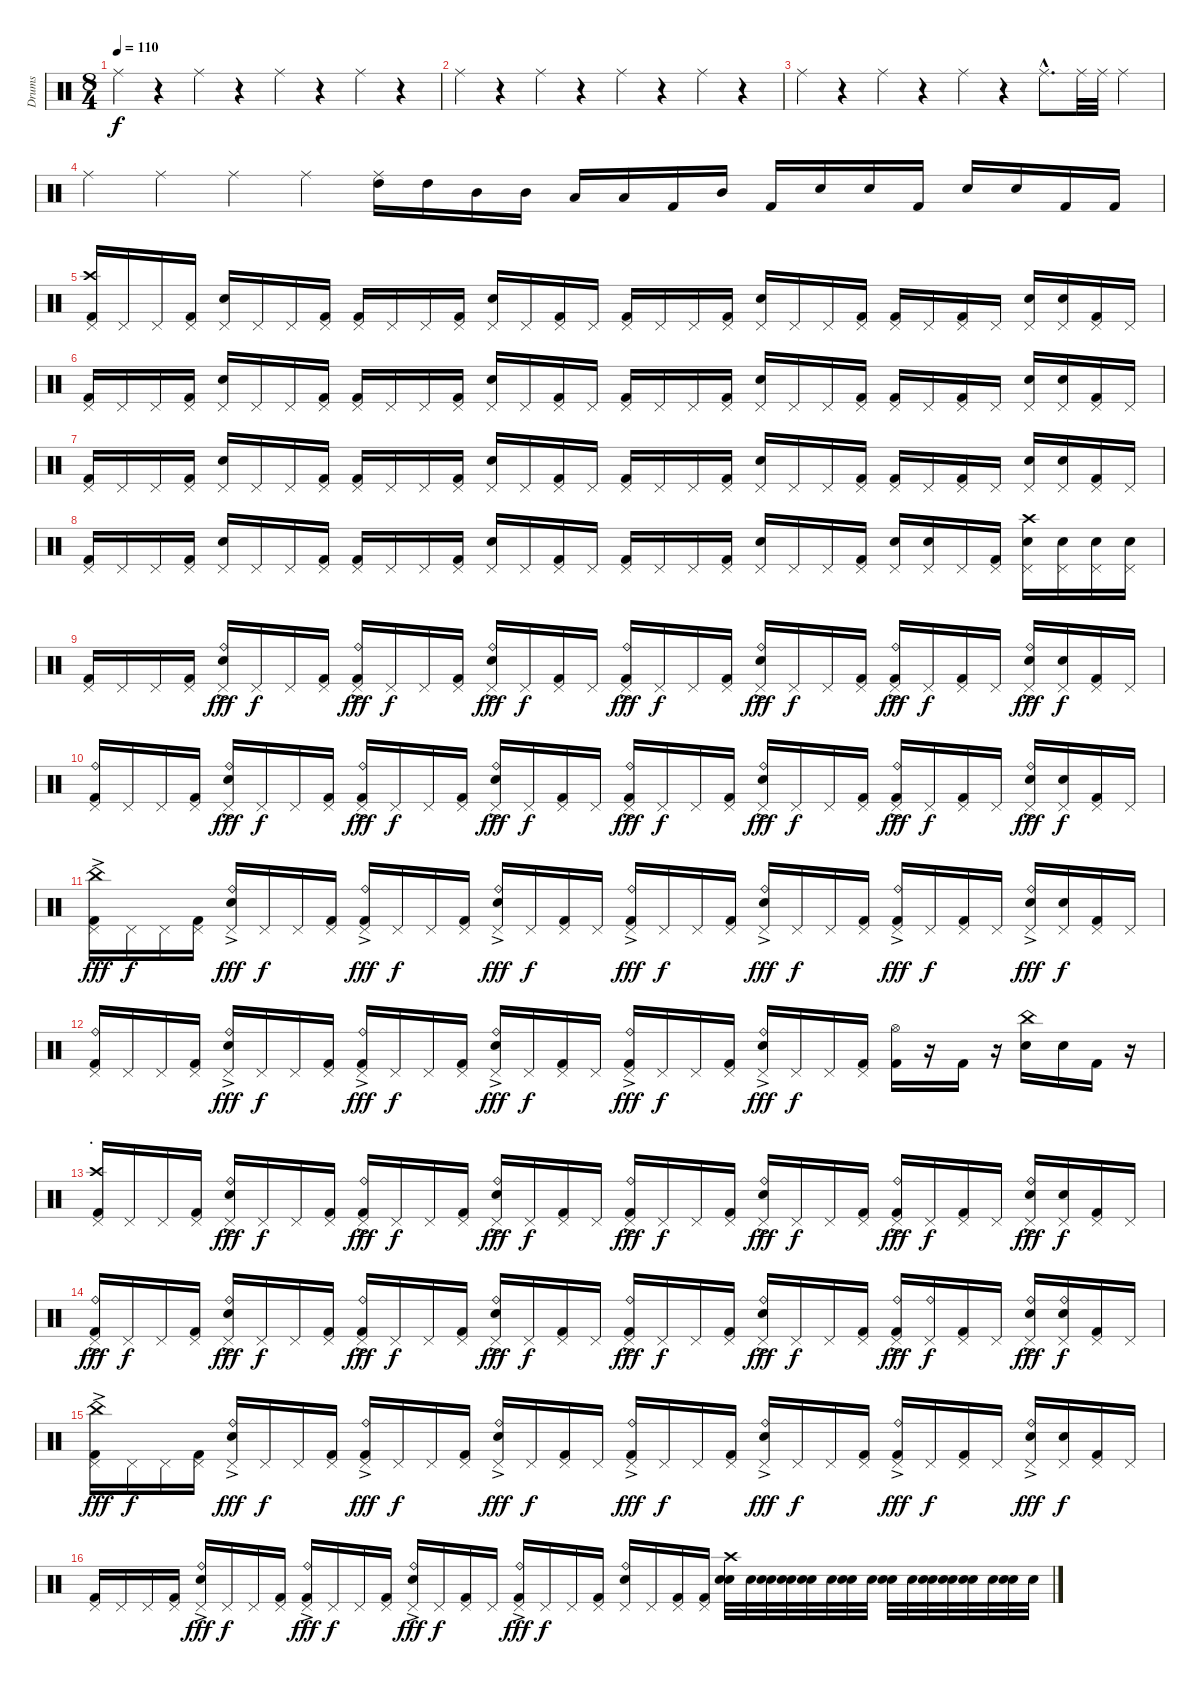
\track ("Drums" "Drums") {instrument percussion}
\staff {score}
\articulation defaults
\ts (8 4)
\tempo 110
\clef neutral
\ks c "Ride (middle)".4{dy f}
r.4 "Ride (middle)".4 r.4 "Ride (middle)".4 r.4 "Ride (middle)".4 r.4 |
"Ride (middle)".4 r.4 "Ride (middle)".4 r.4 "Ride (middle)".4 r.4 "Ride (middle)".4 r.4 |
"Ride (middle)".4 r.4 "Ride (middle)".4 r.4 "Ride (middle)".4 r.4 "Ride (middle)"{hac}.8{d} "Ride (middle)".32 "Ride (middle)".32 "Ride (middle)".4 |
"Ride (middle)".4 "Ride (middle)".4 "Ride (middle)".4 "Ride (middle)".4 ("High Tom (hit)" "Ride (middle)").16 "High Tom (hit)".16 "Mid Tom (hit)".16 "Mid Tom (hit)".16 "Low Tom (hit)".16 "Low Tom (hit)".16 "Kick (hit) 2".16 "Mid Tom (hit)".16 "Kick (hit) 2".16 "Snare (hit) 2".16 "Snare (hit) 2".16 "Kick (hit) 2".16 "Snare (hit) 2".16 "Snare (hit) 2".16 "Kick (hit) 2".16 "Kick (hit) 2".16 |
("Kick (hit) 2" "Crash high (hit)" "Pedal Hi-Hat (hit)").16 "Pedal Hi-Hat (hit)".16 "Pedal Hi-Hat (hit)".16 ("Kick (hit) 2" "Pedal Hi-Hat (hit)").16 ("Electric Snare (hit)" "Pedal Hi-Hat (hit)").16 "Pedal Hi-Hat (hit)".16 "Pedal Hi-Hat (hit)".16 ("Kick (hit) 2" "Pedal Hi-Hat (hit)").16 ("Kick (hit) 2" "Pedal Hi-Hat (hit)").16 "Pedal Hi-Hat (hit)".16 "Pedal Hi-Hat (hit)".16 ("Kick (hit) 2" "Pedal Hi-Hat (hit)").16 ("Electric Snare (hit)" "Pedal Hi-Hat (hit)").16 "Pedal Hi-Hat (hit)".16 ("Kick (hit) 2" "Pedal Hi-Hat (hit)").16 "Pedal Hi-Hat (hit)".16 ("Kick (hit) 2" "Pedal Hi-Hat (hit)").16 "Pedal Hi-Hat (hit)".16 "Pedal Hi-Hat (hit)".16 ("Kick (hit) 2" "Pedal Hi-Hat (hit)").16 ("Electric Snare (hit)" "Pedal Hi-Hat (hit)").16 "Pedal Hi-Hat (hit)".16 "Pedal Hi-Hat (hit)".16 ("Kick (hit) 2" "Pedal Hi-Hat (hit)").16 ("Kick (hit) 2" "Pedal Hi-Hat (hit)").16 "Pedal Hi-Hat (hit)".16 ("Kick (hit) 2" "Pedal Hi-Hat (hit)").16 "Pedal Hi-Hat (hit)".16 ("Electric Snare (hit)" "Pedal Hi-Hat (hit)").16 ("Electric Snare (hit)" "Pedal Hi-Hat (hit)").16 ("Kick (hit) 2" "Pedal Hi-Hat (hit)").16 "Pedal Hi-Hat (hit)".16 |
("Kick (hit) 2" "Pedal Hi-Hat (hit)").16 "Pedal Hi-Hat (hit)".16 "Pedal Hi-Hat (hit)".16 ("Kick (hit) 2" "Pedal Hi-Hat (hit)").16 ("Electric Snare (hit)" "Pedal Hi-Hat (hit)").16 "Pedal Hi-Hat (hit)".16 "Pedal Hi-Hat (hit)".16 ("Kick (hit) 2" "Pedal Hi-Hat (hit)").16 ("Kick (hit) 2" "Pedal Hi-Hat (hit)").16 "Pedal Hi-Hat (hit)".16 "Pedal Hi-Hat (hit)".16 ("Kick (hit) 2" "Pedal Hi-Hat (hit)").16 ("Electric Snare (hit)" "Pedal Hi-Hat (hit)").16 "Pedal Hi-Hat (hit)".16 ("Kick (hit) 2" "Pedal Hi-Hat (hit)").16 "Pedal Hi-Hat (hit)".16 ("Kick (hit) 2" "Pedal Hi-Hat (hit)").16 "Pedal Hi-Hat (hit)".16 "Pedal Hi-Hat (hit)".16 ("Kick (hit) 2" "Pedal Hi-Hat (hit)").16 ("Electric Snare (hit)" "Pedal Hi-Hat (hit)").16 "Pedal Hi-Hat (hit)".16 "Pedal Hi-Hat (hit)".16 ("Kick (hit) 2" "Pedal Hi-Hat (hit)").16 ("Kick (hit) 2" "Pedal Hi-Hat (hit)").16 "Pedal Hi-Hat (hit)".16 ("Kick (hit) 2" "Pedal Hi-Hat (hit)").16 "Pedal Hi-Hat (hit)".16 ("Electric Snare (hit)" "Pedal Hi-Hat (hit)").16 ("Electric Snare (hit)" "Pedal Hi-Hat (hit)").16 ("Kick (hit) 2" "Pedal Hi-Hat (hit)").16 "Pedal Hi-Hat (hit)".16 |
("Kick (hit) 2" "Pedal Hi-Hat (hit)").16 "Pedal Hi-Hat (hit)".16 "Pedal Hi-Hat (hit)".16 ("Kick (hit) 2" "Pedal Hi-Hat (hit)").16 ("Electric Snare (hit)" "Pedal Hi-Hat (hit)").16 "Pedal Hi-Hat (hit)".16 "Pedal Hi-Hat (hit)".16 ("Kick (hit) 2" "Pedal Hi-Hat (hit)").16 ("Kick (hit) 2" "Pedal Hi-Hat (hit)").16 "Pedal Hi-Hat (hit)".16 "Pedal Hi-Hat (hit)".16 ("Kick (hit) 2" "Pedal Hi-Hat (hit)").16 ("Electric Snare (hit)" "Pedal Hi-Hat (hit)").16 "Pedal Hi-Hat (hit)".16 ("Kick (hit) 2" "Pedal Hi-Hat (hit)").16 "Pedal Hi-Hat (hit)".16 ("Kick (hit) 2" "Pedal Hi-Hat (hit)").16 "Pedal Hi-Hat (hit)".16 "Pedal Hi-Hat (hit)".16 ("Kick (hit) 2" "Pedal Hi-Hat (hit)").16 ("Electric Snare (hit)" "Pedal Hi-Hat (hit)").16 "Pedal Hi-Hat (hit)".16 "Pedal Hi-Hat (hit)".16 ("Kick (hit) 2" "Pedal Hi-Hat (hit)").16 ("Kick (hit) 2" "Pedal Hi-Hat (hit)").16 "Pedal Hi-Hat (hit)".16 ("Kick (hit) 2" "Pedal Hi-Hat (hit)").16 "Pedal Hi-Hat (hit)".16 ("Electric Snare (hit)" "Pedal Hi-Hat (hit)").16 ("Electric Snare (hit)" "Pedal Hi-Hat (hit)").16 ("Kick (hit) 2" "Pedal Hi-Hat (hit)").16 "Pedal Hi-Hat (hit)".16 |
("Kick (hit) 2" "Pedal Hi-Hat (hit)").16 "Pedal Hi-Hat (hit)".16 "Pedal Hi-Hat (hit)".16 ("Kick (hit) 2" "Pedal Hi-Hat (hit)").16 ("Electric Snare (hit)" "Pedal Hi-Hat (hit)").16 "Pedal Hi-Hat (hit)".16 "Pedal Hi-Hat (hit)".16 ("Kick (hit) 2" "Pedal Hi-Hat (hit)").16 ("Kick (hit) 2" "Pedal Hi-Hat (hit)").16 "Pedal Hi-Hat (hit)".16 "Pedal Hi-Hat (hit)".16 ("Kick (hit) 2" "Pedal Hi-Hat (hit)").16 ("Electric Snare (hit)" "Pedal Hi-Hat (hit)").16 "Pedal Hi-Hat (hit)".16 ("Kick (hit) 2" "Pedal Hi-Hat (hit)").16 "Pedal Hi-Hat (hit)".16 ("Kick (hit) 2" "Pedal Hi-Hat (hit)").16 "Pedal Hi-Hat (hit)".16 "Pedal Hi-Hat (hit)".16 ("Kick (hit) 2" "Pedal Hi-Hat (hit)").16 ("Electric Snare (hit)" "Pedal Hi-Hat (hit)").16 "Pedal Hi-Hat (hit)".16 "Pedal Hi-Hat (hit)".16 ("Kick (hit) 2" "Pedal Hi-Hat (hit)").16 ("Electric Snare (hit)" "Pedal Hi-Hat (hit)").16 ("Electric Snare (hit)" "Pedal Hi-Hat (hit)").16 "Pedal Hi-Hat (hit)".16 ("Kick (hit) 2" "Pedal Hi-Hat (hit)").16 ("Electric Snare (hit)" "Crash high (hit)" "Pedal Hi-Hat (hit)").16 ("Electric Snare (hit)" "Pedal Hi-Hat (hit)").16 ("Electric Snare (hit)" "Pedal Hi-Hat (hit)").16 ("Electric Snare (hit)" "Pedal Hi-Hat (hit)").16 |
("Kick (hit) 2" "Pedal Hi-Hat (hit)").16 "Pedal Hi-Hat (hit)".16 "Pedal Hi-Hat (hit)".16 ("Kick (hit) 2" "Pedal Hi-Hat (hit)").16 ("Electric Snare (hit)" "Ride (bell)"{ac} "Pedal Hi-Hat (hit)").16{dy fff} "Pedal Hi-Hat (hit)".16{dy f} "Pedal Hi-Hat (hit)".16 ("Kick (hit) 2" "Pedal Hi-Hat (hit)").16 ("Kick (hit) 2" "Ride (bell)"{ac} "Pedal Hi-Hat (hit)").16{dy fff} "Pedal Hi-Hat (hit)".16{dy f} "Pedal Hi-Hat (hit)".16 ("Kick (hit) 2" "Pedal Hi-Hat (hit)").16 ("Electric Snare (hit)" "Ride (bell)"{ac} "Pedal Hi-Hat (hit)").16{dy fff} "Pedal Hi-Hat (hit)".16{dy f} ("Kick (hit) 2" "Pedal Hi-Hat (hit)").16 "Pedal Hi-Hat (hit)".16 ("Kick (hit) 2" "Ride (bell)"{ac} "Pedal Hi-Hat (hit)").16{dy fff} "Pedal Hi-Hat (hit)".16{dy f} "Pedal Hi-Hat (hit)".16 ("Kick (hit) 2" "Pedal Hi-Hat (hit)").16 ("Electric Snare (hit)" "Ride (bell)"{ac} "Pedal Hi-Hat (hit)").16{dy fff} "Pedal Hi-Hat (hit)".16{dy f} "Pedal Hi-Hat (hit)".16 ("Kick (hit) 2" "Pedal Hi-Hat (hit)").16 ("Kick (hit) 2" "Ride (bell)"{ac} "Pedal Hi-Hat (hit)").16{dy fff} "Pedal Hi-Hat (hit)".16{dy f} ("Kick (hit) 2" "Pedal Hi-Hat (hit)").16 "Pedal Hi-Hat (hit)".16 ("Electric Snare (hit)" "Ride (bell)"{ac} "Pedal Hi-Hat (hit)").16{dy fff} ("Electric Snare (hit)" "Pedal Hi-Hat (hit)").16{dy f} ("Kick (hit) 2" "Pedal Hi-Hat (hit)").16 "Pedal Hi-Hat (hit)".16 |
("Kick (hit) 2" "Ride (bell)" "Pedal Hi-Hat (hit)").16 "Pedal Hi-Hat (hit)".16 "Pedal Hi-Hat (hit)".16 ("Kick (hit) 2" "Pedal Hi-Hat (hit)").16 ("Electric Snare (hit)" "Ride (bell)"{ac} "Pedal Hi-Hat (hit)").16{dy fff} "Pedal Hi-Hat (hit)".16{dy f} "Pedal Hi-Hat (hit)".16 ("Kick (hit) 2" "Pedal Hi-Hat (hit)").16 ("Kick (hit) 2" "Ride (bell)"{ac} "Pedal Hi-Hat (hit)").16{dy fff} "Pedal Hi-Hat (hit)".16{dy f} "Pedal Hi-Hat (hit)".16 ("Kick (hit) 2" "Pedal Hi-Hat (hit)").16 ("Electric Snare (hit)" "Ride (bell)"{ac} "Pedal Hi-Hat (hit)").16{dy fff} "Pedal Hi-Hat (hit)".16{dy f} ("Kick (hit) 2" "Pedal Hi-Hat (hit)").16 "Pedal Hi-Hat (hit)".16 ("Kick (hit) 2" "Ride (bell)"{ac} "Pedal Hi-Hat (hit)").16{dy fff} "Pedal Hi-Hat (hit)".16{dy f} "Pedal Hi-Hat (hit)".16 ("Kick (hit) 2" "Pedal Hi-Hat (hit)").16 ("Electric Snare (hit)" "Ride (bell)"{ac} "Pedal Hi-Hat (hit)").16{dy fff} "Pedal Hi-Hat (hit)".16{dy f} "Pedal Hi-Hat (hit)".16 ("Kick (hit) 2" "Pedal Hi-Hat (hit)").16 ("Kick (hit) 2" "Ride (bell)"{ac} "Pedal Hi-Hat (hit)").16{dy fff} "Pedal Hi-Hat (hit)".16{dy f} ("Kick (hit) 2" "Pedal Hi-Hat (hit)").16 "Pedal Hi-Hat (hit)".16 ("Electric Snare (hit)" "Ride (bell)"{ac} "Pedal Hi-Hat (hit)").16{dy fff} ("Electric Snare (hit)" "Pedal Hi-Hat (hit)").16{dy f} ("Kick (hit) 2" "Pedal Hi-Hat (hit)").16 "Pedal Hi-Hat (hit)".16 |
("Kick (hit) 2" "China (hit)"{ac} "Pedal Hi-Hat (hit)").16{dy fff} "Pedal Hi-Hat (hit)".16{dy f} "Pedal Hi-Hat (hit)".16 ("Kick (hit) 2" "Pedal Hi-Hat (hit)").16 ("Electric Snare (hit)" "Ride (bell)"{ac} "Pedal Hi-Hat (hit)").16{dy fff} "Pedal Hi-Hat (hit)".16{dy f} "Pedal Hi-Hat (hit)".16 ("Kick (hit) 2" "Pedal Hi-Hat (hit)").16 ("Kick (hit) 2" "Ride (bell)"{ac} "Pedal Hi-Hat (hit)").16{dy fff} "Pedal Hi-Hat (hit)".16{dy f} "Pedal Hi-Hat (hit)".16 ("Kick (hit) 2" "Pedal Hi-Hat (hit)").16 ("Electric Snare (hit)" "Ride (bell)"{ac} "Pedal Hi-Hat (hit)").16{dy fff} "Pedal Hi-Hat (hit)".16{dy f} ("Kick (hit) 2" "Pedal Hi-Hat (hit)").16 "Pedal Hi-Hat (hit)".16 ("Kick (hit) 2" "Ride (bell)"{ac} "Pedal Hi-Hat (hit)").16{dy fff} "Pedal Hi-Hat (hit)".16{dy f} "Pedal Hi-Hat (hit)".16 ("Kick (hit) 2" "Pedal Hi-Hat (hit)").16 ("Electric Snare (hit)" "Ride (bell)"{ac} "Pedal Hi-Hat (hit)").16{dy fff} "Pedal Hi-Hat (hit)".16{dy f} "Pedal Hi-Hat (hit)".16 ("Kick (hit) 2" "Pedal Hi-Hat (hit)").16 ("Kick (hit) 2" "Ride (bell)"{ac} "Pedal Hi-Hat (hit)").16{dy fff} "Pedal Hi-Hat (hit)".16{dy f} ("Kick (hit) 2" "Pedal Hi-Hat (hit)").16 "Pedal Hi-Hat (hit)".16 ("Electric Snare (hit)" "Ride (bell)"{ac} "Pedal Hi-Hat (hit)").16{dy fff} ("Electric Snare (hit)" "Pedal Hi-Hat (hit)").16{dy f} ("Kick (hit) 2" "Pedal Hi-Hat (hit)").16 "Pedal Hi-Hat (hit)".16 |
("Kick (hit) 2" "Ride (bell)" "Pedal Hi-Hat (hit)").16 "Pedal Hi-Hat (hit)".16 "Pedal Hi-Hat (hit)".16 ("Kick (hit) 2" "Pedal Hi-Hat (hit)").16 ("Electric Snare (hit)" "Ride (bell)"{ac} "Pedal Hi-Hat (hit)").16{dy fff} "Pedal Hi-Hat (hit)".16{dy f} "Pedal Hi-Hat (hit)".16 ("Kick (hit) 2" "Pedal Hi-Hat (hit)").16 ("Kick (hit) 2" "Ride (bell)"{ac} "Pedal Hi-Hat (hit)").16{dy fff} "Pedal Hi-Hat (hit)".16{dy f} "Pedal Hi-Hat (hit)".16 ("Kick (hit) 2" "Pedal Hi-Hat (hit)").16 ("Electric Snare (hit)" "Ride (bell)"{ac} "Pedal Hi-Hat (hit)").16{dy fff} "Pedal Hi-Hat (hit)".16{dy f} ("Kick (hit) 2" "Pedal Hi-Hat (hit)").16 "Pedal Hi-Hat (hit)".16 ("Kick (hit) 2" "Ride (bell)"{ac} "Pedal Hi-Hat (hit)").16{dy fff} "Pedal Hi-Hat (hit)".16{dy f} "Pedal Hi-Hat (hit)".16 ("Kick (hit) 2" "Pedal Hi-Hat (hit)").16 ("Electric Snare (hit)" "Ride (bell)"{ac} "Pedal Hi-Hat (hit)").16{dy fff} "Pedal Hi-Hat (hit)".16{dy f} "Pedal Hi-Hat (hit)".16 ("Kick (hit) 2" "Pedal Hi-Hat (hit)").16 ("Kick (hit) 2" "Hi-Hat (open)").16 r.16 "Kick (hit) 2".16 r.16 ("Electric Snare (hit)" "China (hit)").16 "Electric Snare (hit)".16 "Kick (hit) 2".16 r.16 |
\section ("" ".")
("Kick (hit) 2" "Crash high (hit)" "Pedal Hi-Hat (hit)").16 "Pedal Hi-Hat (hit)".16 "Pedal Hi-Hat (hit)".16 ("Kick (hit) 2" "Pedal Hi-Hat (hit)").16 ("Electric Snare (hit)" "Ride (bell)"{ac} "Pedal Hi-Hat (hit)").16{dy fff} "Pedal Hi-Hat (hit)".16{dy f} "Pedal Hi-Hat (hit)".16 ("Kick (hit) 2" "Pedal Hi-Hat (hit)").16 ("Kick (hit) 2" "Ride (bell)"{ac} "Pedal Hi-Hat (hit)").16{dy fff} "Pedal Hi-Hat (hit)".16{dy f} "Pedal Hi-Hat (hit)".16 ("Kick (hit) 2" "Pedal Hi-Hat (hit)").16 ("Electric Snare (hit)" "Ride (bell)"{ac} "Pedal Hi-Hat (hit)").16{dy fff} "Pedal Hi-Hat (hit)".16{dy f} ("Kick (hit) 2" "Pedal Hi-Hat (hit)").16 "Pedal Hi-Hat (hit)".16 ("Kick (hit) 2" "Ride (bell)"{ac} "Pedal Hi-Hat (hit)").16{dy fff} "Pedal Hi-Hat (hit)".16{dy f} "Pedal Hi-Hat (hit)".16 ("Kick (hit) 2" "Pedal Hi-Hat (hit)").16 ("Electric Snare (hit)" "Ride (bell)"{ac} "Pedal Hi-Hat (hit)").16{dy fff} "Pedal Hi-Hat (hit)".16{dy f} "Pedal Hi-Hat (hit)".16 ("Kick (hit) 2" "Pedal Hi-Hat (hit)").16 ("Kick (hit) 2" "Ride (bell)"{ac} "Pedal Hi-Hat (hit)").16{dy fff} "Pedal Hi-Hat (hit)".16{dy f} ("Kick (hit) 2" "Pedal Hi-Hat (hit)").16 "Pedal Hi-Hat (hit)".16 ("Electric Snare (hit)" "Ride (bell)"{ac} "Pedal Hi-Hat (hit)").16{dy fff} ("Electric Snare (hit)" "Pedal Hi-Hat (hit)").16{dy f} ("Kick (hit) 2" "Pedal Hi-Hat (hit)").16 "Pedal Hi-Hat (hit)".16 |
("Kick (hit) 2" "Ride (bell)"{ac} "Pedal Hi-Hat (hit)").16{dy fff} "Pedal Hi-Hat (hit)".16{dy f} "Pedal Hi-Hat (hit)".16 ("Kick (hit) 2" "Pedal Hi-Hat (hit)").16 ("Electric Snare (hit)" "Ride (bell)"{ac} "Pedal Hi-Hat (hit)").16{dy fff} "Pedal Hi-Hat (hit)".16{dy f} "Pedal Hi-Hat (hit)".16 ("Kick (hit) 2" "Pedal Hi-Hat (hit)").16 ("Kick (hit) 2" "Ride (bell)"{ac} "Pedal Hi-Hat (hit)").16{dy fff} "Pedal Hi-Hat (hit)".16{dy f} "Pedal Hi-Hat (hit)".16 ("Kick (hit) 2" "Pedal Hi-Hat (hit)").16 ("Electric Snare (hit)" "Ride (bell)"{ac} "Pedal Hi-Hat (hit)").16{dy fff} "Pedal Hi-Hat (hit)".16{dy f} ("Kick (hit) 2" "Pedal Hi-Hat (hit)").16 "Pedal Hi-Hat (hit)".16 ("Kick (hit) 2" "Ride (bell)"{ac} "Pedal Hi-Hat (hit)").16{dy fff} "Pedal Hi-Hat (hit)".16{dy f} "Pedal Hi-Hat (hit)".16 ("Kick (hit) 2" "Pedal Hi-Hat (hit)").16 ("Electric Snare (hit)" "Ride (bell)"{ac} "Pedal Hi-Hat (hit)").16{dy fff} "Pedal Hi-Hat (hit)".16{dy f} "Pedal Hi-Hat (hit)".16 ("Kick (hit) 2" "Pedal Hi-Hat (hit)").16 ("Kick (hit) 2" "Ride (bell)"{ac} "Pedal Hi-Hat (hit)").16{dy fff} ("Ride (bell)" "Pedal Hi-Hat (hit)").16{dy f} ("Kick (hit) 2" "Pedal Hi-Hat (hit)").16 "Pedal Hi-Hat (hit)".16 ("Electric Snare (hit)" "Ride (bell)"{ac} "Pedal Hi-Hat (hit)").16{dy fff} ("Electric Snare (hit)" "Ride (bell)" "Pedal Hi-Hat (hit)").16{dy f} ("Kick (hit) 2" "Pedal Hi-Hat (hit)").16 "Pedal Hi-Hat (hit)".16 |
("Kick (hit) 2" "China (hit)"{ac} "Pedal Hi-Hat (hit)").16{dy fff} "Pedal Hi-Hat (hit)".16{dy f} "Pedal Hi-Hat (hit)".16 ("Kick (hit) 2" "Pedal Hi-Hat (hit)").16 ("Electric Snare (hit)" "Ride (bell)"{ac} "Pedal Hi-Hat (hit)").16{dy fff} "Pedal Hi-Hat (hit)".16{dy f} "Pedal Hi-Hat (hit)".16 ("Kick (hit) 2" "Pedal Hi-Hat (hit)").16 ("Kick (hit) 2" "Ride (bell)"{ac} "Pedal Hi-Hat (hit)").16{dy fff} "Pedal Hi-Hat (hit)".16{dy f} "Pedal Hi-Hat (hit)".16 ("Kick (hit) 2" "Pedal Hi-Hat (hit)").16 ("Electric Snare (hit)" "Ride (bell)"{ac} "Pedal Hi-Hat (hit)").16{dy fff} "Pedal Hi-Hat (hit)".16{dy f} ("Kick (hit) 2" "Pedal Hi-Hat (hit)").16 "Pedal Hi-Hat (hit)".16 ("Kick (hit) 2" "Ride (bell)"{ac} "Pedal Hi-Hat (hit)").16{dy fff} "Pedal Hi-Hat (hit)".16{dy f} "Pedal Hi-Hat (hit)".16 ("Kick (hit) 2" "Pedal Hi-Hat (hit)").16 ("Electric Snare (hit)" "Ride (bell)"{ac} "Pedal Hi-Hat (hit)").16{dy fff} "Pedal Hi-Hat (hit)".16{dy f} "Pedal Hi-Hat (hit)".16 ("Kick (hit) 2" "Pedal Hi-Hat (hit)").16 ("Kick (hit) 2" "Ride (bell)"{ac} "Pedal Hi-Hat (hit)").16{dy fff} "Pedal Hi-Hat (hit)".16{dy f} ("Kick (hit) 2" "Pedal Hi-Hat (hit)").16 "Pedal Hi-Hat (hit)".16 ("Electric Snare (hit)" "Ride (bell)"{ac} "Pedal Hi-Hat (hit)").16{dy fff} ("Electric Snare (hit)" "Pedal Hi-Hat (hit)").16{dy f} ("Kick (hit) 2" "Pedal Hi-Hat (hit)").16 "Pedal Hi-Hat (hit)".16 |
("Kick (hit) 2" "Pedal Hi-Hat (hit)").16 "Pedal Hi-Hat (hit)".16 "Pedal Hi-Hat (hit)".16 ("Kick (hit) 2" "Pedal Hi-Hat (hit)").16 ("Electric Snare (hit)" "Ride (bell)"{ac} "Pedal Hi-Hat (hit)").16{dy fff} "Pedal Hi-Hat (hit)".16{dy f} "Pedal Hi-Hat (hit)".16 ("Kick (hit) 2" "Pedal Hi-Hat (hit)").16 ("Kick (hit) 2" "Ride (bell)"{ac} "Pedal Hi-Hat (hit)").16{dy fff} "Pedal Hi-Hat (hit)".16{dy f} "Pedal Hi-Hat (hit)".16 ("Kick (hit) 2" "Pedal Hi-Hat (hit)").16 ("Electric Snare (hit)" "Ride (bell)"{ac} "Pedal Hi-Hat (hit)").16{dy fff} "Pedal Hi-Hat (hit)".16{dy f} ("Kick (hit) 2" "Pedal Hi-Hat (hit)").16 "Pedal Hi-Hat (hit)".16 ("Kick (hit) 2" "Ride (bell)"{ac} "Pedal Hi-Hat (hit)").16{dy fff} "Pedal Hi-Hat (hit)".16{dy f} "Pedal Hi-Hat (hit)".16 ("Kick (hit) 2" "Pedal Hi-Hat (hit)").16 ("Electric Snare (hit)" "Ride (bell)" "Pedal Hi-Hat (hit)").16 "Pedal Hi-Hat (hit)".16 ("Kick (hit) 2" "Pedal Hi-Hat (hit)").16 ("Kick (hit) 2" "Pedal Hi-Hat (hit)").16 ("Electric Snare (hit)" "Crash high (hit)" "Snare (hit)").32 "Snare (hit)".32 ("Electric Snare (hit)" "Snare (hit)").32 ("Electric Snare (hit)" "Snare (hit)").32 ("Electric Snare (hit)" "Snare (hit)").32 "Snare (hit)".32 ("Electric Snare (hit)" "Snare (hit)").32 "Snare (hit)".32 ("Electric Snare (hit)" "Snare (hit)").32 "Snare (hit)".32 ("Electric Snare (hit)" "Snare (hit)").32 ("Electric Snare (hit)" "Snare (hit)").32 ("Electric Snare (hit)" "Snare (hit)").32 "Snare (hit)".32 ("Electric Snare (hit)" "Snare (hit)").32 "Snare (hit)".32
